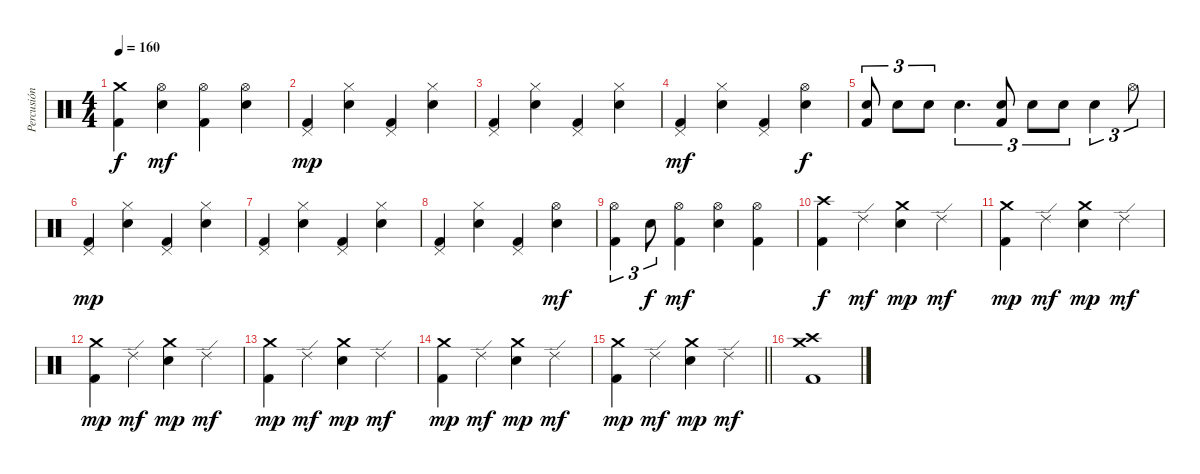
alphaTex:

\track ("Percusión" "Percusión") {instrument percussion}
\staff {score}
\articulation defaults
\ts (4 4)
\tempo 160
\clef neutral
\ks c
("Crash medium (hit)" "Kick (hit) 2").4{dy f} ("Hi-Hat (open)" "Electric Snare (hit)").4{dy mf} ("Hi-Hat (open)" "Kick (hit) 2").4 ("Hi-Hat (open)" "Electric Snare (hit)").4 |
("Pedal Hi-Hat (hit)" "Kick (hit) 2").4{dy mp} ("Hi-Hat (closed)" "Electric Snare (hit)").4 ("Pedal Hi-Hat (hit)" "Kick (hit) 2").4 ("Hi-Hat (closed)" "Electric Snare (hit)").4 |
("Pedal Hi-Hat (hit)" "Kick (hit) 2").4 ("Hi-Hat (closed)" "Electric Snare (hit)").4 ("Pedal Hi-Hat (hit)" "Kick (hit) 2").4 ("Hi-Hat (closed)" "Electric Snare (hit)").4 |
("Pedal Hi-Hat (hit)" "Kick (hit) 2").4{dy mf} ("Hi-Hat (closed)" "Electric Snare (hit)").4 ("Pedal Hi-Hat (hit)" "Kick (hit) 2").4 ("Hi-Hat (open)" "Electric Snare (hit)").4{dy f} |
("Electric Snare (hit)" "Kick (hit) 2").8{tu (3 2) beam split} "Electric Snare (hit)".8{tu (3 2)} "Electric Snare (hit)".8{tu (3 2)} "Electric Snare (hit)".4{d tu (3 2)} ("Electric Snare (hit)" "Kick (hit) 2").8{tu (3 2) beam split} "Electric Snare (hit)".8{tu (3 2)} "Electric Snare (hit)".8{tu (3 2)} "Electric Snare (hit)".4{tu (3 2)} "Hi-Hat (open)".8{tu (3 2)} |
("Pedal Hi-Hat (hit)" "Kick (hit) 2").4{dy mp} ("Hi-Hat (closed)" "Electric Snare (hit)").4 ("Pedal Hi-Hat (hit)" "Kick (hit) 2").4 ("Hi-Hat (closed)" "Electric Snare (hit)").4 |
("Pedal Hi-Hat (hit)" "Kick (hit) 2").4 ("Hi-Hat (closed)" "Electric Snare (hit)").4 ("Pedal Hi-Hat (hit)" "Kick (hit) 2").4 ("Hi-Hat (closed)" "Electric Snare (hit)").4 |
("Pedal Hi-Hat (hit)" "Kick (hit) 2").4 ("Hi-Hat (closed)" "Electric Snare (hit)").4 ("Pedal Hi-Hat (hit)" "Kick (hit) 2").4 ("Hi-Hat (open)" "Electric Snare (hit)").4{dy mf} |
("Hi-Hat (open)" "Kick (hit) 2").4{tu (3 2)} "Electric Snare (hit)".8{tu (3 2) dy f} ("Hi-Hat (open)" "Kick (hit) 2").4{dy mf} ("Hi-Hat (open)" "Electric Snare (hit)").4 ("Hi-Hat (open)" "Kick (hit) 2").4 |
("Crash high (hit)" "Kick (hit) 2").4{dy f} "Ride (edge) 2".4{dy mf} ("Crash medium (hit)" "Snare (hit) 2").4{dy mp} "Ride (edge) 2".4{dy mf} |
("Crash medium (hit)" "Kick (hit) 2").4{dy mp} "Ride (edge) 2".4{dy mf} ("Crash medium (hit)" "Snare (hit) 2").4{dy mp} "Ride (edge) 2".4{dy mf} |
("Crash medium (hit)" "Kick (hit) 2").4{dy mp} "Ride (edge) 2".4{dy mf} ("Crash medium (hit)" "Snare (hit) 2").4{dy mp} "Ride (edge) 2".4{dy mf} |
("Crash medium (hit)" "Kick (hit) 2").4{dy mp} "Ride (edge) 2".4{dy mf} ("Crash medium (hit)" "Snare (hit) 2").4{dy mp} "Ride (edge) 2".4{dy mf} |
("Crash medium (hit)" "Kick (hit) 2").4{dy mp} "Ride (edge) 2".4{dy mf} ("Crash medium (hit)" "Snare (hit) 2").4{dy mp} "Ride (edge) 2".4{dy mf} |
\barLineRight lightlight
("Crash medium (hit)" "Kick (hit) 2").4{dy mp} "Ride (edge) 2".4{dy mf} ("Crash medium (hit)" "Snare (hit) 2").4{dy mp} "Ride (edge) 2".4{dy mf} |
("Crash medium (hit)" "Crash high (hit)" "Kick (hit) 2").1
